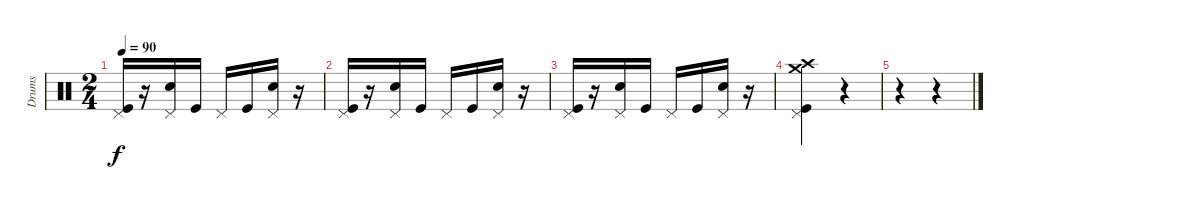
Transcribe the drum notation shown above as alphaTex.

\track ("Drums" "Drums") {instrument percussion}
\staff {score}
\articulation defaults
\ts (2 4)
\tempo 90
\clef neutral
\ks c
("Kick (hit)" "Pedal Hi-Hat (hit)").16{dy f} r.16 ("Snare (hit) 2" "Pedal Hi-Hat (hit)").16 "Kick (hit)".16 "Pedal Hi-Hat (hit)".16 "Kick (hit)".16 ("Snare (hit) 2" "Pedal Hi-Hat (hit)").16 r.16 |
("Kick (hit)" "Pedal Hi-Hat (hit)").16 r.16 ("Snare (hit) 2" "Pedal Hi-Hat (hit)").16 "Kick (hit)".16 "Pedal Hi-Hat (hit)".16 "Kick (hit)".16 ("Snare (hit) 2" "Pedal Hi-Hat (hit)").16 r.16 |
("Kick (hit)" "Pedal Hi-Hat (hit)").16 r.16 ("Snare (hit) 2" "Pedal Hi-Hat (hit)").16 "Kick (hit)".16 "Pedal Hi-Hat (hit)".16 "Kick (hit)".16 ("Snare (hit) 2" "Pedal Hi-Hat (hit)").16 r.16 |
("Crash medium (hit)" "Crash high (hit)" "Kick (hit)" "Pedal Hi-Hat (hit)").4 r.4 |
r.4 r.4
